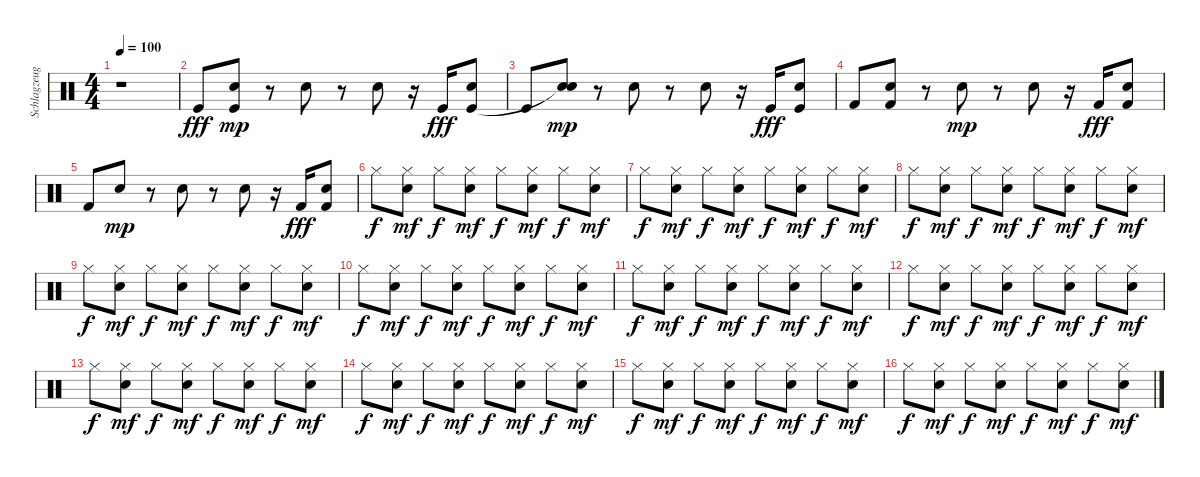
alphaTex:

\track ("Schlagzeug (Intro)" "Schlagzeug") {instrument percussion}
\staff {score}
\articulation defaults
\ts (4 4)
\tempo 100
\clef neutral
\ks c
r.1{dy mf} |
"Kick (hit)".8{dy fff} ("Hand Clap (hit)" "Kick (hit)").8{dy mp} r.8 "Hand Clap (hit)".8 r.8 "Hand Clap (hit)".8 r.16 "Kick (hit)".16{dy fff} ("Hand Clap (hit)" "Kick (hit)").8 |
"Kick (hit)".8 ("Hand Clap (hit)" "Snare (hit)"{t}).8{dy mp} r.8 "Hand Clap (hit)".8 r.8 "Hand Clap (hit)".8 r.16 "Kick (hit)".16{dy fff} ("Hand Clap (hit)" "Kick (hit)").8 |
"Kick (hit) 2".8 ("Hand Clap (hit)" "Kick (hit) 2").8 r.8 "Hand Clap (hit)".8{dy mp} r.8 "Hand Clap (hit)".8 r.16 "Kick (hit) 2".16{dy fff} ("Hand Clap (hit)" "Kick (hit) 2").8 |
"Kick (hit) 2".8 "Hand Clap (hit)".8{dy mp} r.8 "Hand Clap (hit)".8 r.8 "Hand Clap (hit)".8 r.16 "Kick (hit) 2".16{dy fff} ("Hand Clap (hit)" "Kick (hit) 2").8 |
"Hi-Hat (closed)".8{dy f} ("Hand Clap (hit)" "Hi-Hat (closed)").8{dy mf} "Hi-Hat (closed)".8{dy f} ("Hand Clap (hit)" "Hi-Hat (closed)").8{dy mf} "Hi-Hat (closed)".8{dy f} ("Hand Clap (hit)" "Hi-Hat (closed)").8{dy mf} "Hi-Hat (closed)".8{dy f} ("Hand Clap (hit)" "Hi-Hat (closed)").8{dy mf} |
"Hi-Hat (closed)".8{dy f} ("Hand Clap (hit)" "Hi-Hat (closed)").8{dy mf} "Hi-Hat (closed)".8{dy f} ("Hand Clap (hit)" "Hi-Hat (closed)").8{dy mf} "Hi-Hat (closed)".8{dy f} ("Hand Clap (hit)" "Hi-Hat (closed)").8{dy mf} "Hi-Hat (closed)".8{dy f} ("Hand Clap (hit)" "Hi-Hat (closed)").8{dy mf} |
"Hi-Hat (closed)".8{dy f} ("Hand Clap (hit)" "Hi-Hat (closed)").8{dy mf} "Hi-Hat (closed)".8{dy f} ("Hand Clap (hit)" "Hi-Hat (closed)").8{dy mf} "Hi-Hat (closed)".8{dy f} ("Hand Clap (hit)" "Hi-Hat (closed)").8{dy mf} "Hi-Hat (closed)".8{dy f} ("Hand Clap (hit)" "Hi-Hat (closed)").8{dy mf} |
"Hi-Hat (closed)".8{dy f} ("Hand Clap (hit)" "Hi-Hat (closed)").8{dy mf} "Hi-Hat (closed)".8{dy f} ("Hand Clap (hit)" "Hi-Hat (closed)").8{dy mf} "Hi-Hat (closed)".8{dy f} ("Hand Clap (hit)" "Hi-Hat (closed)").8{dy mf} "Hi-Hat (closed)".8{dy f} ("Hand Clap (hit)" "Hi-Hat (closed)").8{dy mf} |
"Hi-Hat (closed)".8{dy f} ("Hand Clap (hit)" "Hi-Hat (closed)").8{dy mf} "Hi-Hat (closed)".8{dy f} ("Hand Clap (hit)" "Hi-Hat (closed)").8{dy mf} "Hi-Hat (closed)".8{dy f} ("Hand Clap (hit)" "Hi-Hat (closed)").8{dy mf} "Hi-Hat (closed)".8{dy f} ("Hand Clap (hit)" "Hi-Hat (closed)").8{dy mf} |
"Hi-Hat (closed)".8{dy f} ("Hand Clap (hit)" "Hi-Hat (closed)").8{dy mf} "Hi-Hat (closed)".8{dy f} ("Hand Clap (hit)" "Hi-Hat (closed)").8{dy mf} "Hi-Hat (closed)".8{dy f} ("Hand Clap (hit)" "Hi-Hat (closed)").8{dy mf} "Hi-Hat (closed)".8{dy f} ("Hand Clap (hit)" "Hi-Hat (closed)").8{dy mf} |
"Hi-Hat (closed)".8{dy f} ("Hand Clap (hit)" "Hi-Hat (closed)").8{dy mf} "Hi-Hat (closed)".8{dy f} ("Hand Clap (hit)" "Hi-Hat (closed)").8{dy mf} "Hi-Hat (closed)".8{dy f} ("Hand Clap (hit)" "Hi-Hat (closed)").8{dy mf} "Hi-Hat (closed)".8{dy f} ("Hand Clap (hit)" "Hi-Hat (closed)").8{dy mf} |
"Hi-Hat (closed)".8{dy f} ("Hand Clap (hit)" "Hi-Hat (closed)").8{dy mf} "Hi-Hat (closed)".8{dy f} ("Hand Clap (hit)" "Hi-Hat (closed)").8{dy mf} "Hi-Hat (closed)".8{dy f} ("Hand Clap (hit)" "Hi-Hat (closed)").8{dy mf} "Hi-Hat (closed)".8{dy f} ("Hand Clap (hit)" "Hi-Hat (closed)").8{dy mf} |
"Hi-Hat (closed)".8{dy f} ("Hand Clap (hit)" "Hi-Hat (closed)").8{dy mf} "Hi-Hat (closed)".8{dy f} ("Hand Clap (hit)" "Hi-Hat (closed)").8{dy mf} "Hi-Hat (closed)".8{dy f} ("Hand Clap (hit)" "Hi-Hat (closed)").8{dy mf} "Hi-Hat (closed)".8{dy f} ("Hand Clap (hit)" "Hi-Hat (closed)").8{dy mf} |
"Hi-Hat (closed)".8{dy f} ("Hand Clap (hit)" "Hi-Hat (closed)").8{dy mf} "Hi-Hat (closed)".8{dy f} ("Hand Clap (hit)" "Hi-Hat (closed)").8{dy mf} "Hi-Hat (closed)".8{dy f} ("Hand Clap (hit)" "Hi-Hat (closed)").8{dy mf} "Hi-Hat (closed)".8{dy f} ("Hand Clap (hit)" "Hi-Hat (closed)").8{dy mf} |
"Hi-Hat (closed)".8{dy f} ("Hand Clap (hit)" "Hi-Hat (closed)").8{dy mf} "Hi-Hat (closed)".8{dy f} ("Hand Clap (hit)" "Hi-Hat (closed)").8{dy mf} "Hi-Hat (closed)".8{dy f} ("Hand Clap (hit)" "Hi-Hat (closed)").8{dy mf} "Hi-Hat (closed)".8{dy f} ("Hand Clap (hit)" "Hi-Hat (closed)").8{dy mf}
